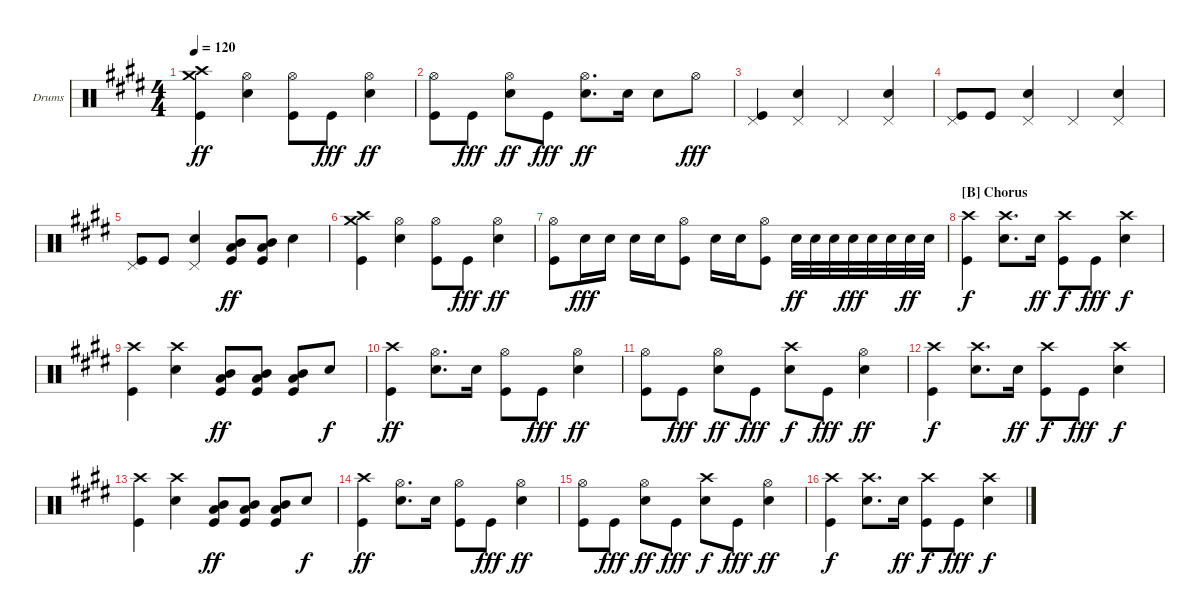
\defaultSystemsLayout 4
\bracketExtendMode groupsimilarinstruments
\firstSystemTrackNameOrientation horizontal
\otherSystemsTrackNameOrientation horizontal
\track ("Drums" "Drums") {instrument percussion}
\staff {score}
\articulation defaults
\ts (4 4)
\tempo 120
\clef neutral
\scale
1.06557
\ks e
("Crash high (hit)" "Crash medium (hit)" "Kick (hit)").4{dy ff} ("Hi-Hat (open)" "Snare (hit) 2").4 ("Hi-Hat (open)" "Kick (hit)").8 "Kick (hit)".8{dy fff} ("Hi-Hat (open)" "Snare (hit) 2").4{dy ff} |
\scale
0.934426 ("Hi-Hat (open)" "Kick (hit)").8 "Kick (hit)".8{dy fff} ("Hi-Hat (open)" "Snare (hit) 2").8{dy ff} "Kick (hit)".8{dy fff} ("Hi-Hat (open)" "Snare (hit) 2").8{d dy ff} "Snare (hit) 2".16 "Snare (hit) 2".8 "Hi-Hat (open)".8{dy fff} |
\scale
1.06557 ("Pedal Hi-Hat (hit)" "Kick (hit)").4 ("Pedal Hi-Hat (hit)" "Snare (hit) 2").4 "Pedal Hi-Hat (hit)".4 ("Pedal Hi-Hat (hit)" "Snare (hit) 2").4 |
\scale
0.934426 ("Pedal Hi-Hat (hit)" "Kick (hit)").8 "Kick (hit)".8 ("Pedal Hi-Hat (hit)" "Snare (hit) 2").4 "Pedal Hi-Hat (hit)".4 ("Pedal Hi-Hat (hit)" "Snare (hit) 2").4 |
\scale
1.06557 ("Pedal Hi-Hat (hit)" "Kick (hit)").8 "Kick (hit)".8 ("Pedal Hi-Hat (hit)" "Snare (hit) 2").4 ("Mid Tom (hit)" "Low Tom (hit)" "Kick (hit)").8{dy ff} ("Mid Tom (hit)" "Low Tom (hit)" "Kick (hit)").8 "Snare (hit) 2".4 |
\scale
0.934426 ("Crash high (hit)" "Crash medium (hit)" "Kick (hit)").4 ("Hi-Hat (open)" "Snare (hit) 2").4 ("Hi-Hat (open)" "Kick (hit)").8 "Kick (hit)".8{dy fff} ("Hi-Hat (open)" "Snare (hit) 2").4{dy ff} |
\scale
1.06557 ("Hi-Hat (open)" "Kick (hit)").8 "Snare (hit) 2".16{dy fff} "Snare (hit) 2".16 "Snare (hit) 2".16 "Snare (hit) 2".16 ("Hi-Hat (open)" "Kick (hit)").8 "Snare (hit) 2".16 "Snare (hit) 2".16 ("Hi-Hat (open)" "Kick (hit)").8 "Snare (hit) 2".32{dy ff} "Snare (hit) 2".32 "Snare (hit) 2".32 "Snare (hit) 2".32{dy fff} "Snare (hit) 2".32 "Snare (hit) 2".32 "Snare (hit) 2".32{dy ff} "Snare (hit) 2".32 |
\section ("B" "Chorus")
\scale
0.934426 ("Crash high (hit)" "Kick (hit)").4{dy f} ("Crash high (hit)" "Snare (hit) 2").8{d} "Snare (hit) 2".16{dy ff} ("Crash high (hit)" "Kick (hit)").8{dy f} "Kick (hit)".8{dy fff} ("Crash high (hit)" "Snare (hit) 2").4{dy f} |
\scale
1.06557 ("Crash high (hit)" "Kick (hit)").4 ("Crash high (hit)" "Snare (hit) 2").4 ("Mid Tom (hit)" "Low Tom (hit)" "Kick (hit)").8{dy ff} ("Mid Tom (hit)" "Low Tom (hit)" "Kick (hit)").8 ("Mid Tom (hit)" "Low Tom (hit)" "Kick (hit)").8 "Snare (hit) 2".8{dy f} |
\scale
0.934426 ("Crash high (hit)" "Kick (hit)").4{dy ff} ("Hi-Hat (open)" "Snare (hit) 2").8{d} "Snare (hit) 2".16 ("Hi-Hat (open)" "Kick (hit)").8 "Kick (hit)".8{dy fff} ("Hi-Hat (open)" "Snare (hit) 2").4{dy ff} |
\scale
1.06557 ("Hi-Hat (open)" "Kick (hit)").8 "Kick (hit)".8{dy fff} ("Hi-Hat (open)" "Snare (hit) 2").8{dy ff} "Kick (hit)".8{dy fff} ("Crash high (hit)" "Snare (hit) 2").8{dy f} "Kick (hit)".8{dy fff} ("Hi-Hat (open)" "Snare (hit) 2").4{dy ff} |
\scale
0.934426 ("Crash high (hit)" "Kick (hit)").4{dy f} ("Crash high (hit)" "Snare (hit) 2").8{d} "Snare (hit) 2".16{dy ff} ("Crash high (hit)" "Kick (hit)").8{dy f} "Kick (hit)".8{dy fff} ("Crash high (hit)" "Snare (hit) 2").4{dy f} |
\scale
1.06557 ("Crash high (hit)" "Kick (hit)").4 ("Crash high (hit)" "Snare (hit) 2").4 ("Mid Tom (hit)" "Low Tom (hit)" "Kick (hit)").8{dy ff} ("Mid Tom (hit)" "Low Tom (hit)" "Kick (hit)").8 ("Mid Tom (hit)" "Low Tom (hit)" "Kick (hit)").8 "Snare (hit) 2".8{dy f} |
\scale
0.934426 ("Crash high (hit)" "Kick (hit)").4{dy ff} ("Hi-Hat (open)" "Snare (hit) 2").8{d} "Snare (hit) 2".16 ("Hi-Hat (open)" "Kick (hit)").8 "Kick (hit)".8{dy fff} ("Hi-Hat (open)" "Snare (hit) 2").4{dy ff} |
\scale
1.06557 ("Hi-Hat (open)" "Kick (hit)").8 "Kick (hit)".8{dy fff} ("Hi-Hat (open)" "Snare (hit) 2").8{dy ff} "Kick (hit)".8{dy fff} ("Crash high (hit)" "Snare (hit) 2").8{dy f} "Kick (hit)".8{dy fff} ("Hi-Hat (open)" "Snare (hit) 2").4{dy ff} |
\scale
0.934426 ("Crash high (hit)" "Kick (hit)").4{dy f} ("Crash high (hit)" "Snare (hit) 2").8{d} "Snare (hit) 2".16{dy ff} ("Crash high (hit)" "Kick (hit)").8{dy f} "Kick (hit)".8{dy fff} ("Crash high (hit)" "Snare (hit) 2").4{dy f}
